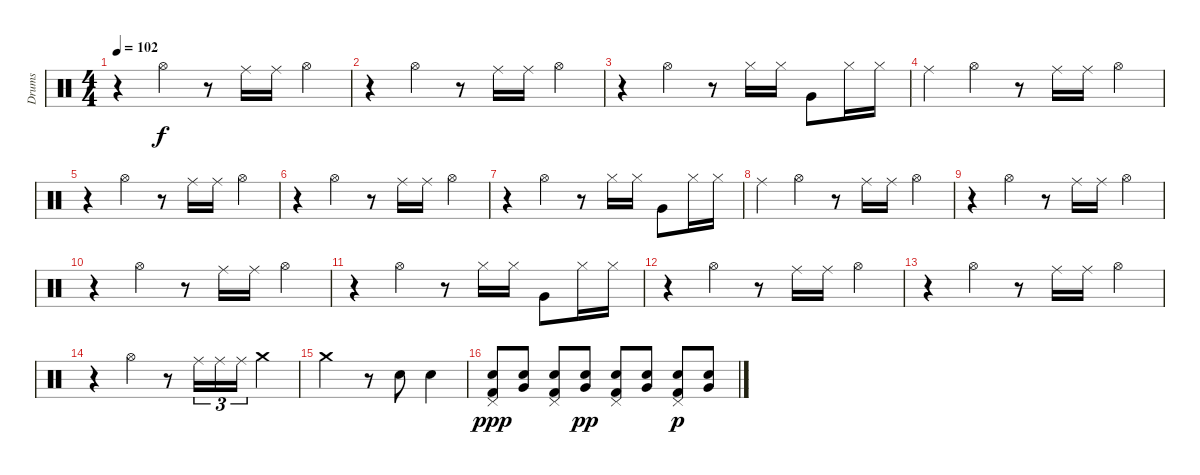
\track ("Drums" "Drums") {instrument percussion}
\staff {score}
\articulation defaults
\ts (4 4)
\tempo 102
\clef neutral
\ks c
r.4{dy f} "Hi-Hat (open)".4 r.8 "Ride (middle)".16 "Ride (middle)".16 "Hi-Hat (open)".4 |
r.4 "Hi-Hat (open)".4 r.8 "Ride (middle)".16 "Ride (middle)".16 "Hi-Hat (open)".4 |
r.4 "Hi-Hat (open)".4 r.8 "Hi-Hat (closed)".16 "Hi-Hat (closed)".16 "Very Low Tom (hit)".8 "Hi-Hat (closed)".16 "Hi-Hat (closed)".16 |
"Ride (middle)".4 "Hi-Hat (open)".4 r.8 "Ride (middle)".16 "Ride (middle)".16 "Hi-Hat (open)".4 |
r.4 "Hi-Hat (open)".4 r.8 "Ride (middle)".16 "Ride (middle)".16 "Hi-Hat (open)".4 |
r.4 "Hi-Hat (open)".4 r.8 "Ride (middle)".16 "Ride (middle)".16 "Hi-Hat (open)".4 |
r.4 "Hi-Hat (open)".4 r.8 "Hi-Hat (closed)".16 "Hi-Hat (closed)".16 "Very Low Tom (hit)".8 "Hi-Hat (closed)".16 "Hi-Hat (closed)".16 |
"Ride (middle)".4 "Hi-Hat (open)".4 r.8 "Ride (middle)".16 "Ride (middle)".16 "Hi-Hat (open)".4 |
r.4 "Hi-Hat (open)".4 r.8 "Ride (middle)".16 "Ride (middle)".16 "Hi-Hat (open)".4 |
r.4 "Hi-Hat (open)".4 r.8 "Ride (middle)".16 "Ride (middle)".16 "Hi-Hat (open)".4 |
r.4 "Hi-Hat (open)".4 r.8 "Hi-Hat (closed)".16 "Hi-Hat (closed)".16 "Very Low Tom (hit)".8 "Hi-Hat (closed)".16 "Hi-Hat (closed)".16 |
r.4 "Hi-Hat (open)".4 r.8 "Ride (middle)".16 "Ride (middle)".16 "Hi-Hat (open)".4 |
r.4 "Hi-Hat (open)".4 r.8 "Ride (middle)".16 "Ride (middle)".16 "Hi-Hat (open)".4 |
r.4 "Hi-Hat (open)".4 r.8 "Ride (middle)".16{tu (3 2)} "Ride (middle)".16{tu (3 2)} "Ride (middle)".16{tu (3 2)} "Crash medium (hit)".4 |
"Crash medium (hit)".2 r.8 "Snare (hit) 2".8 "Snare (hit) 2".4 |
("Pedal Hi-Hat (hit)" "Snare (hit) 2" "Kick (hit) 2").8{dy ppp} ("Snare (hit) 2" "Very Low Tom (hit)").8 ("Pedal Hi-Hat (hit)" "Snare (hit) 2" "Kick (hit) 2").8 ("Snare (hit) 2" "Very Low Tom (hit)").8{dy pp} ("Pedal Hi-Hat (hit)" "Snare (hit) 2" "Kick (hit) 2").8 ("Snare (hit) 2" "Very Low Tom (hit)").8 ("Pedal Hi-Hat (hit)" "Snare (hit) 2" "Kick (hit) 2").8{dy p} ("Snare (hit) 2" "Very Low Tom (hit)").8
